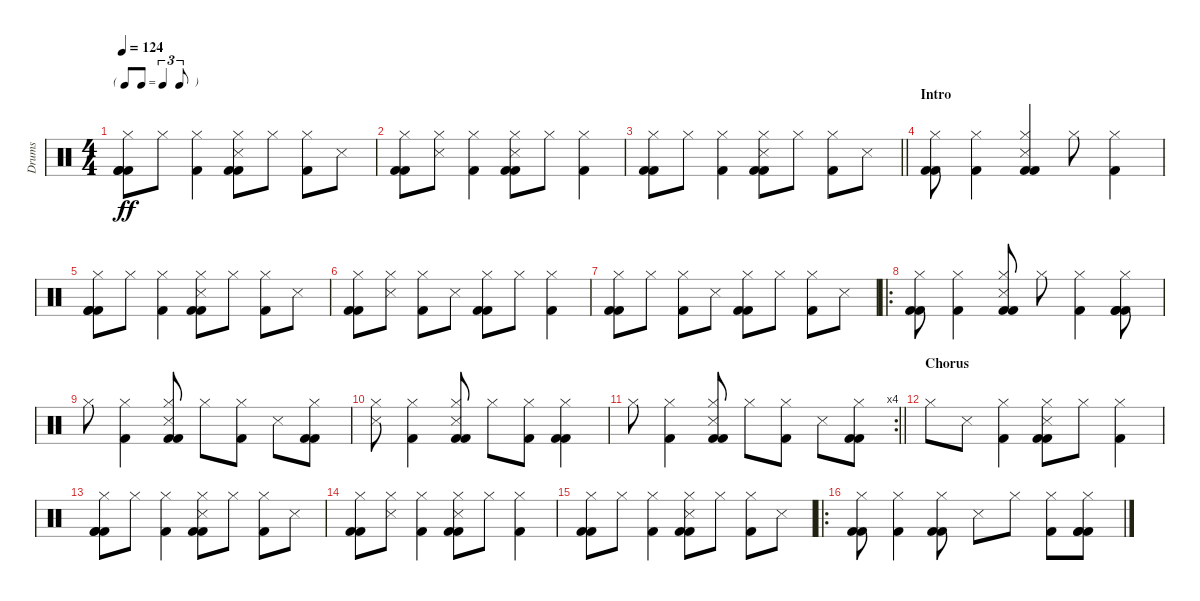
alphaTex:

\track ("Drums" "Drums") {instrument percussion}
\staff {score}
\articulation defaults
\ts (4 4)
\tf triplet8th
\tempo 124
\clef neutral
\ks c
("Kick (hit) 2" "Kick (hit) 2" "Kick (hit) 2" "Hi-Hat (closed)").8{dy ff} "Hi-Hat (closed)".8 ("Kick (hit) 2" "Hi-Hat (closed)").4 ("Kick (hit) 2" "Kick (hit) 2" "Hi-Hat (closed)" "Snare (side stick) 3").8 "Hi-Hat (closed)".8 ("Kick (hit) 2" "Hi-Hat (closed)").8 "Snare (side stick) 3".8 |
("Kick (hit) 2" "Kick (hit) 2" "Hi-Hat (closed)").8 ("Snare (side stick) 3" "Hi-Hat (closed)").8 ("Kick (hit) 2" "Hi-Hat (closed)").4 ("Snare (side stick) 3" "Kick (hit) 2" "Kick (hit) 2" "Hi-Hat (closed)").8 "Hi-Hat (closed)".8 ("Kick (hit) 2" "Hi-Hat (closed)").4 |
\barLineRight lightlight
("Kick (hit) 2" "Kick (hit) 2" "Hi-Hat (closed)").8 "Hi-Hat (closed)".8 ("Kick (hit) 2" "Hi-Hat (closed)").4 ("Snare (side stick) 3" "Kick (hit) 2" "Kick (hit) 2" "Hi-Hat (closed)").8 "Hi-Hat (closed)".8 ("Kick (hit) 2" "Hi-Hat (closed)").8 "Snare (side stick) 3".8 |
\section ("" "Intro")
("Kick (hit) 2" "Kick (hit) 2" "Hi-Hat (closed)").8 ("Kick (hit) 2" "Hi-Hat (closed)").4 ("Kick (hit) 2" "Kick (hit) 2" "Hi-Hat (closed)" "Snare (side stick) 3").4 "Hi-Hat (closed)".8 ("Kick (hit) 2" "Hi-Hat (closed)").4 |
("Kick (hit) 2" "Kick (hit) 2" "Kick (hit) 2" "Hi-Hat (closed)").8 "Hi-Hat (closed)".8 ("Kick (hit) 2" "Hi-Hat (closed)").4 ("Kick (hit) 2" "Kick (hit) 2" "Hi-Hat (closed)" "Snare (side stick) 3").8 "Hi-Hat (closed)".8 ("Kick (hit) 2" "Hi-Hat (closed)").8 "Snare (side stick) 3".8 |
("Kick (hit) 2" "Kick (hit) 2" "Hi-Hat (closed)").8 ("Snare (side stick) 3" "Hi-Hat (closed)").8 ("Kick (hit) 2" "Hi-Hat (closed)").8 "Snare (side stick) 3".8 ("Kick (hit) 2" "Kick (hit) 2" "Hi-Hat (closed)").8 "Hi-Hat (closed)".8 ("Kick (hit) 2" "Hi-Hat (closed)").4 |
("Kick (hit) 2" "Kick (hit) 2" "Hi-Hat (closed)").8 "Hi-Hat (closed)".8 ("Kick (hit) 2" "Hi-Hat (closed)").8 "Snare (side stick) 3".8 ("Kick (hit) 2" "Kick (hit) 2" "Hi-Hat (closed)").8 "Hi-Hat (closed)".8 ("Kick (hit) 2" "Hi-Hat (closed)").8 "Snare (side stick) 3".8 |
\ro
("Kick (hit) 2" "Kick (hit) 2" "Hi-Hat (closed)").8 ("Kick (hit) 2" "Hi-Hat (closed)").4 ("Kick (hit) 2" "Kick (hit) 2" "Hi-Hat (closed)" "Snare (side stick) 3").8 "Hi-Hat (closed)".8 ("Kick (hit) 2" "Hi-Hat (closed)").4 ("Kick (hit) 2" "Kick (hit) 2" "Kick (hit) 2" "Hi-Hat (closed)").8 |
"Hi-Hat (closed)".8 ("Kick (hit) 2" "Hi-Hat (closed)").4 ("Kick (hit) 2" "Kick (hit) 2" "Hi-Hat (closed)" "Snare (side stick) 3").8 "Hi-Hat (closed)".8 ("Kick (hit) 2" "Hi-Hat (closed)").8 "Snare (side stick) 3".8 ("Kick (hit) 2" "Kick (hit) 2" "Hi-Hat (closed)").8 |
("Snare (side stick) 3" "Hi-Hat (closed)").8 ("Kick (hit) 2" "Hi-Hat (closed)").4 ("Snare (side stick) 3" "Kick (hit) 2" "Kick (hit) 2" "Hi-Hat (closed)").8 "Hi-Hat (closed)".8 ("Kick (hit) 2" "Hi-Hat (closed)").8 ("Kick (hit) 2" "Kick (hit) 2" "Hi-Hat (closed)").4 |
\rc 4
\barLineRight lightlight "Hi-Hat (closed)".8
("Kick (hit) 2" "Hi-Hat (closed)").4 ("Snare (side stick) 3" "Kick (hit) 2" "Kick (hit) 2" "Hi-Hat (closed)").8 "Hi-Hat (closed)".8 ("Kick (hit) 2" "Hi-Hat (closed)").8 "Snare (side stick) 3".8 ("Kick (hit) 2" "Kick (hit) 2" "Hi-Hat (closed)").8 |
\section ("" "Chorus")
"Hi-Hat (closed)".8 "Snare (side stick) 3".8 ("Kick (hit) 2" "Hi-Hat (closed)").4 ("Kick (hit) 2" "Kick (hit) 2" "Hi-Hat (closed)" "Snare (side stick) 3").8 "Hi-Hat (closed)".8 ("Kick (hit) 2" "Hi-Hat (closed)").4 |
("Kick (hit) 2" "Kick (hit) 2" "Kick (hit) 2" "Hi-Hat (closed)").8 "Hi-Hat (closed)".8 ("Kick (hit) 2" "Hi-Hat (closed)").4 ("Kick (hit) 2" "Kick (hit) 2" "Hi-Hat (closed)" "Snare (side stick) 3").8 "Hi-Hat (closed)".8 ("Kick (hit) 2" "Hi-Hat (closed)").8 "Snare (side stick) 3".8 |
("Kick (hit) 2" "Kick (hit) 2" "Hi-Hat (closed)").8 ("Snare (side stick) 3" "Hi-Hat (closed)").8 ("Kick (hit) 2" "Hi-Hat (closed)").4 ("Snare (side stick) 3" "Kick (hit) 2" "Kick (hit) 2" "Hi-Hat (closed)").8 "Hi-Hat (closed)".8 ("Kick (hit) 2" "Hi-Hat (closed)").4 |
("Kick (hit) 2" "Kick (hit) 2" "Hi-Hat (closed)").8 "Hi-Hat (closed)".8 ("Kick (hit) 2" "Hi-Hat (closed)").4 ("Snare (side stick) 3" "Kick (hit) 2" "Kick (hit) 2" "Hi-Hat (closed)").8 "Hi-Hat (closed)".8 ("Kick (hit) 2" "Hi-Hat (closed)").8 "Snare (side stick) 3".8 |
\ro
("Kick (hit) 2" "Kick (hit) 2" "Hi-Hat (closed)").8 ("Kick (hit) 2" "Hi-Hat (closed)").4 ("Kick (hit) 2" "Kick (hit) 2" "Hi-Hat (closed)").8 "Snare (side stick) 3".8 "Hi-Hat (closed)".8 ("Kick (hit) 2" "Hi-Hat (closed)").8 ("Kick (hit) 2" "Kick (hit) 2" "Kick (hit) 2" "Hi-Hat (closed)").8
